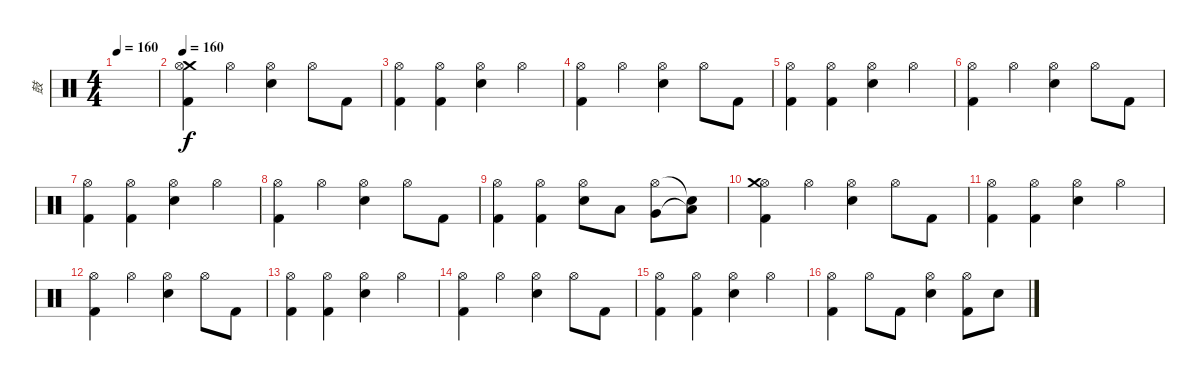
\track ("鼓" "鼓") {instrument percussion}
\staff {score}
\articulation defaults
\ts (4 4)
\tempo 160
\clef neutral
\ks c
|
\tempo 160
("Crash medium (hit)" "Hi-Hat (open)" "Kick (hit) 2").4 "Hi-Hat (open)".4 ("Hi-Hat (open)" "Electric Snare (hit)").4 "Hi-Hat (open)".8 "Kick (hit) 2".8 |
("Hi-Hat (open)" "Kick (hit) 2").4 ("Hi-Hat (open)" "Kick (hit) 2").4 ("Hi-Hat (open)" "Electric Snare (hit)").4 "Hi-Hat (open)".4 |
("Hi-Hat (open)" "Kick (hit) 2").4 "Hi-Hat (open)".4 ("Hi-Hat (open)" "Electric Snare (hit)").4 "Hi-Hat (open)".8 "Kick (hit) 2".8 |
("Hi-Hat (open)" "Kick (hit) 2").4 ("Hi-Hat (open)" "Kick (hit) 2").4 ("Hi-Hat (open)" "Electric Snare (hit)").4 "Hi-Hat (open)".4 |
("Hi-Hat (open)" "Kick (hit) 2").4 "Hi-Hat (open)".4 ("Hi-Hat (open)" "Electric Snare (hit)").4 "Hi-Hat (open)".8 "Kick (hit) 2".8 |
("Hi-Hat (open)" "Kick (hit) 2").4 ("Hi-Hat (open)" "Kick (hit) 2").4 ("Hi-Hat (open)" "Electric Snare (hit)").4 "Hi-Hat (open)".4 |
("Hi-Hat (open)" "Kick (hit) 2").4 "Hi-Hat (open)".4 ("Hi-Hat (open)" "Electric Snare (hit)").4 "Hi-Hat (open)".8 "Kick (hit) 2".8 |
("Hi-Hat (open)" "Kick (hit) 2").4 ("Hi-Hat (open)" "Kick (hit) 2").4 ("Hi-Hat (open)" "Electric Snare (hit)").8 "Low Tom (hit)".8 ("Hi-Hat (open)" "Very Low Tom (hit)").8 ("Snare (hit)"{t} "Low Floor Tom (hit)"{t}).8 |
("Hi-Hat (open)" "Crash medium (hit)" "Kick (hit) 2").4 "Hi-Hat (open)".4 ("Hi-Hat (open)" "Electric Snare (hit)").4 "Hi-Hat (open)".8 "Kick (hit) 2".8 |
("Hi-Hat (open)" "Kick (hit) 2").4 ("Hi-Hat (open)" "Kick (hit) 2").4 ("Hi-Hat (open)" "Electric Snare (hit)").4 "Hi-Hat (open)".4 |
("Hi-Hat (open)" "Kick (hit) 2").4 "Hi-Hat (open)".4 ("Hi-Hat (open)" "Electric Snare (hit)").4 "Hi-Hat (open)".8 "Kick (hit) 2".8 |
("Hi-Hat (open)" "Kick (hit) 2").4 ("Hi-Hat (open)" "Kick (hit) 2").4 ("Hi-Hat (open)" "Electric Snare (hit)").4 "Hi-Hat (open)".4 |
("Hi-Hat (open)" "Kick (hit) 2").4 "Hi-Hat (open)".4 ("Hi-Hat (open)" "Electric Snare (hit)").4 "Hi-Hat (open)".8 "Kick (hit) 2".8 |
("Hi-Hat (open)" "Kick (hit) 2").4 ("Hi-Hat (open)" "Kick (hit) 2").4 ("Hi-Hat (open)" "Electric Snare (hit)").4 "Hi-Hat (open)".4 |
("Hi-Hat (open)" "Kick (hit) 2").4 "Hi-Hat (open)".8 "Kick (hit) 2".8 ("Hi-Hat (open)" "Electric Snare (hit)").4 ("Hi-Hat (open)" "Kick (hit) 2").8 "Electric Snare (hit)".8
